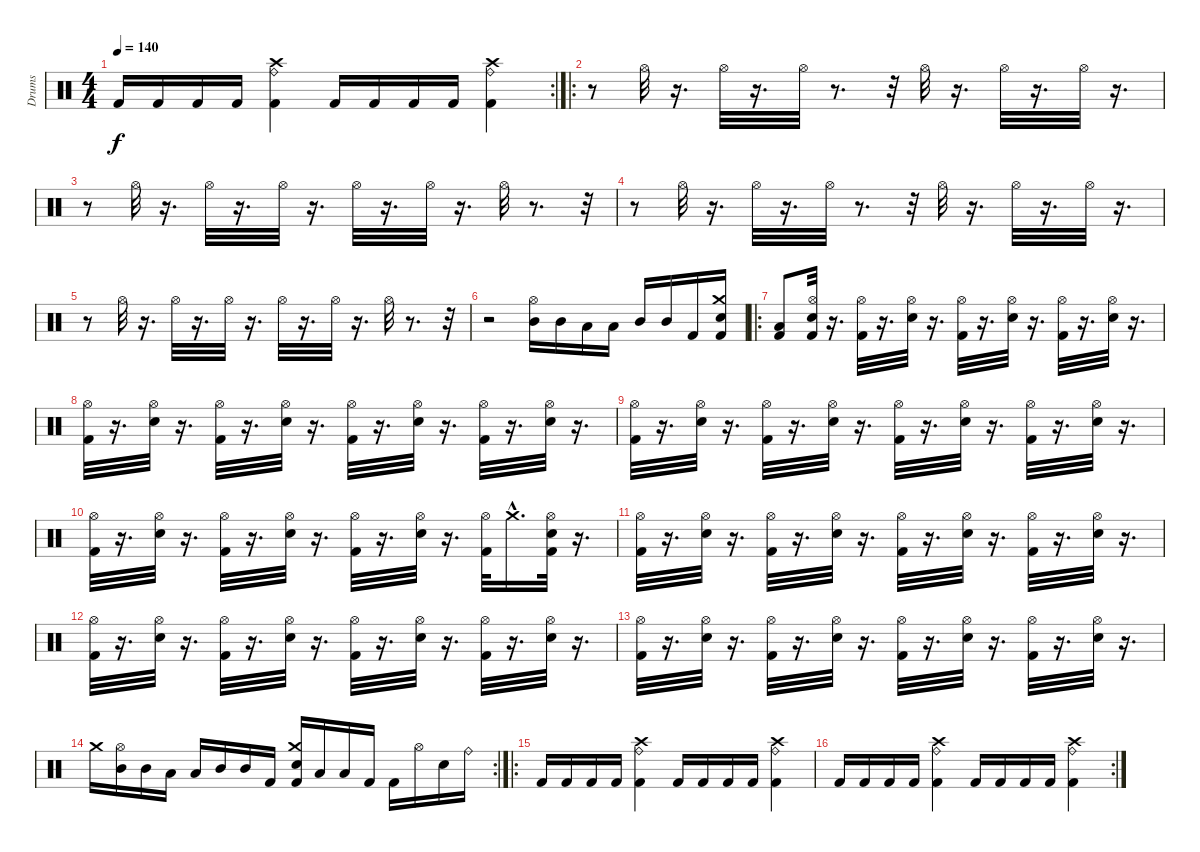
\track ("Drums" "Drums") {instrument percussion}
\staff {score}
\articulation defaults
\rc 2
\ts (4 4)
\tempo 140
\clef neutral
\ks c "Kick (hit) 2".16{dy f} "Kick (hit) 2".16 "Kick (hit) 2".16 "Kick (hit) 2".16
("Crash high (hit)" "Ride (bell)" "Kick (hit) 2").4 "Kick (hit) 2".16 "Kick (hit) 2".16 "Kick (hit) 2".16 "Kick (hit) 2".16 ("Crash high (hit)" "Ride (bell)" "Kick (hit) 2").4 |
\ro
r.8 "Hi-Hat (open)".32 r.16{d} "Hi-Hat (open)".32 r.16{d} "Hi-Hat (open)".32 r.8{d} r.32 "Hi-Hat (open)".32 r.16{d} "Hi-Hat (open)".32 r.16{d} "Hi-Hat (open)".32 r.16{d} |
r.8 "Hi-Hat (open)".32 r.16{d} "Hi-Hat (open)".32 r.16{d} "Hi-Hat (open)".32 r.16{d} "Hi-Hat (open)".32 r.16{d} "Hi-Hat (open)".32 r.16{d} "Hi-Hat (open)".32 r.8{d} r.32 |
r.8 "Hi-Hat (open)".32 r.16{d} "Hi-Hat (open)".32 r.16{d} "Hi-Hat (open)".32 r.8{d} r.32 "Hi-Hat (open)".32 r.16{d} "Hi-Hat (open)".32 r.16{d} "Hi-Hat (open)".32 r.16{d} |
r.8 "Hi-Hat (open)".32 r.16{d} "Hi-Hat (open)".32 r.16{d} "Hi-Hat (open)".32 r.16{d} "Hi-Hat (open)".32 r.16{d} "Hi-Hat (open)".32 r.16{d} "Hi-Hat (open)".32 r.8{d} r.32 |
r.2 ("Hi-Hat (open)" "Mid Tom (hit)").16 "Mid Tom (hit)".16 "Low Tom (hit)".16 "Low Tom (hit)".16 "Mid Tom (hit)".16 "Mid Tom (hit)".16 "Kick (hit) 2".16 ("Crash medium (hit)" "Electric Snare (hit)" "Kick (hit) 2").16 |
\ro
("Kick (hit) 2" "Low Tom (hit)").8 ("Hi-Hat (open)" "Kick (hit) 2" "Electric Snare (hit)").32 r.16{d} ("Hi-Hat (open)" "Kick (hit) 2").32 r.16{d} ("Hi-Hat (open)" "Electric Snare (hit)").32 r.16{d} ("Hi-Hat (open)" "Kick (hit) 2").32 r.16{d} ("Hi-Hat (open)" "Electric Snare (hit)").32 r.16{d} ("Hi-Hat (open)" "Kick (hit) 2").32 r.16{d} ("Hi-Hat (open)" "Electric Snare (hit)").32 r.16{d} |
("Hi-Hat (open)" "Kick (hit) 2").32 r.16{d} ("Hi-Hat (open)" "Electric Snare (hit)").32 r.16{d} ("Hi-Hat (open)" "Kick (hit) 2").32 r.16{d} ("Hi-Hat (open)" "Electric Snare (hit)").32 r.16{d} ("Hi-Hat (open)" "Kick (hit) 2").32 r.16{d} ("Hi-Hat (open)" "Electric Snare (hit)").32 r.16{d} ("Hi-Hat (open)" "Kick (hit) 2").32 r.16{d} ("Hi-Hat (open)" "Electric Snare (hit)").32 r.16{d} |
("Hi-Hat (open)" "Kick (hit) 2").32 r.16{d} ("Hi-Hat (open)" "Electric Snare (hit)").32 r.16{d} ("Hi-Hat (open)" "Kick (hit) 2").32 r.16{d} ("Hi-Hat (open)" "Electric Snare (hit)").32 r.16{d} ("Hi-Hat (open)" "Kick (hit) 2").32 r.16{d} ("Hi-Hat (open)" "Electric Snare (hit)").32 r.16{d} ("Hi-Hat (open)" "Kick (hit) 2").32 r.16{d} ("Hi-Hat (open)" "Electric Snare (hit)").32 r.16{d} |
("Hi-Hat (open)" "Kick (hit) 2").32 r.16{d} ("Hi-Hat (open)" "Electric Snare (hit)").32 r.16{d} ("Hi-Hat (open)" "Kick (hit) 2").32 r.16{d} ("Hi-Hat (open)" "Electric Snare (hit)").32 r.16{d} ("Hi-Hat (open)" "Kick (hit) 2").32 r.16{d} ("Hi-Hat (open)" "Electric Snare (hit)").32 r.16{d} ("Hi-Hat (open)" "Kick (hit) 2").32 "Crash medium (hit)"{hac}.16{d} ("Hi-Hat (open)" "Kick (hit) 2" "Electric Snare (hit)").32 r.16{d} |
("Hi-Hat (open)" "Kick (hit) 2").32 r.16{d} ("Hi-Hat (open)" "Electric Snare (hit)").32 r.16{d} ("Hi-Hat (open)" "Kick (hit) 2").32 r.16{d} ("Hi-Hat (open)" "Electric Snare (hit)").32 r.16{d} ("Hi-Hat (open)" "Kick (hit) 2").32 r.16{d} ("Hi-Hat (open)" "Electric Snare (hit)").32 r.16{d} ("Hi-Hat (open)" "Kick (hit) 2").32 r.16{d} ("Hi-Hat (open)" "Electric Snare (hit)").32 r.16{d} |
("Hi-Hat (open)" "Kick (hit) 2").32 r.16{d} ("Hi-Hat (open)" "Electric Snare (hit)").32 r.16{d} ("Hi-Hat (open)" "Kick (hit) 2").32 r.16{d} ("Hi-Hat (open)" "Electric Snare (hit)").32 r.16{d} ("Hi-Hat (open)" "Kick (hit) 2").32 r.16{d} ("Hi-Hat (open)" "Electric Snare (hit)").32 r.16{d} ("Hi-Hat (open)" "Kick (hit) 2").32 r.16{d} ("Hi-Hat (open)" "Electric Snare (hit)").32 r.16{d} |
("Hi-Hat (open)" "Kick (hit) 2").32 r.16{d} ("Hi-Hat (open)" "Electric Snare (hit)").32 r.16{d} ("Hi-Hat (open)" "Kick (hit) 2").32 r.16{d} ("Hi-Hat (open)" "Electric Snare (hit)").32 r.16{d} ("Hi-Hat (open)" "Kick (hit) 2").32 r.16{d} ("Hi-Hat (open)" "Electric Snare (hit)").32 r.16{d} ("Hi-Hat (open)" "Kick (hit) 2").32 r.16{d} ("Hi-Hat (open)" "Electric Snare (hit)").32 r.16{d} |
\rc 2 "Crash medium (hit)".16
("Hi-Hat (open)" "Mid Tom (hit)").16 "Mid Tom (hit)".16 "Low Tom (hit)".16 "Low Tom (hit)".16 "Mid Tom (hit)".16 "Mid Tom (hit)".16 "Kick (hit) 2".16 ("Crash medium (hit)" "Electric Snare (hit)" "Kick (hit) 2").16 "Low Tom (hit)".16 "Low Tom (hit)".16 "Kick (hit) 2".16 "Kick (hit) 2".16 "Hi-Hat (open)".16 "Electric Snare (hit)".16 "Ride (bell)".16 |
\ro "Kick (hit) 2".16 "Kick (hit) 2".16 "Kick (hit) 2".16 "Kick (hit) 2".16
("Crash high (hit)" "Ride (bell)" "Kick (hit) 2").4 "Kick (hit) 2".16 "Kick (hit) 2".16 "Kick (hit) 2".16 "Kick (hit) 2".16 ("Crash high (hit)" "Ride (bell)" "Kick (hit) 2").4 |
\rc 2 "Kick (hit) 2".16 "Kick (hit) 2".16 "Kick (hit) 2".16 "Kick (hit) 2".16
("Crash high (hit)" "Ride (bell)" "Kick (hit) 2").4 "Kick (hit) 2".16 "Kick (hit) 2".16 "Kick (hit) 2".16 "Kick (hit) 2".16 ("Crash high (hit)" "Ride (bell)" "Kick (hit) 2").4
